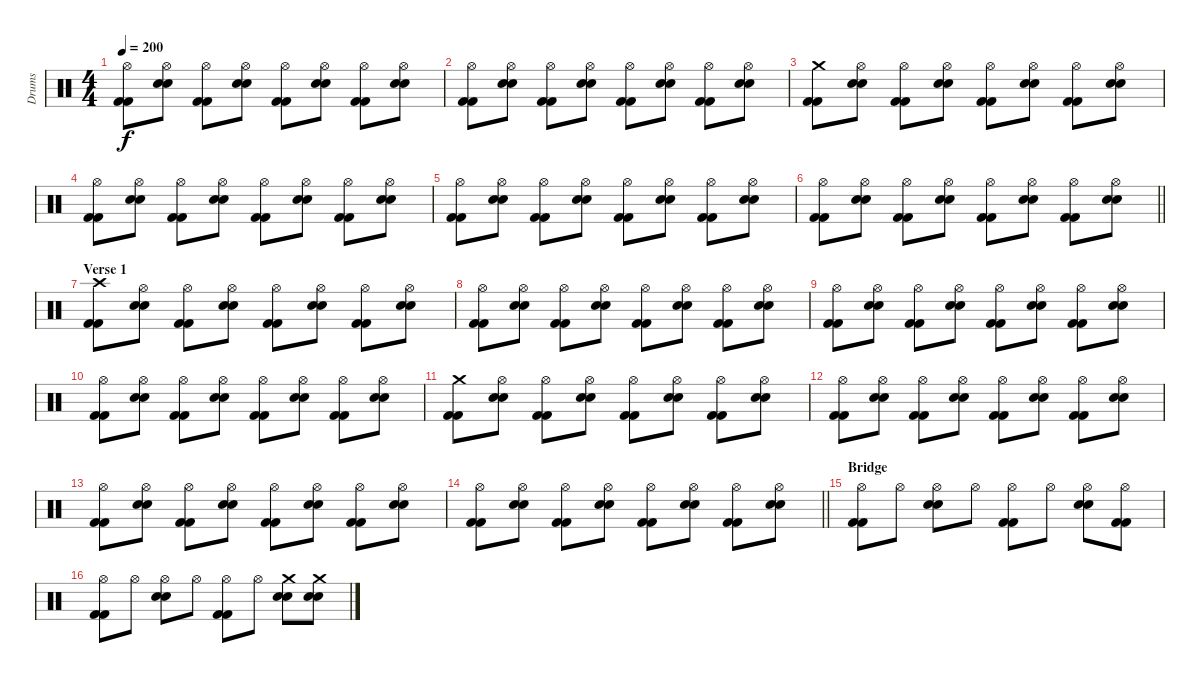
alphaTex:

\track ("Drums" "Drums") {instrument percussion}
\staff {score}
\articulation defaults
\ts (4 4)
\tempo 200
\clef neutral
\ks c
("Hi-Hat (open)" "Kick (hit) 2" "Kick (hit) 2").8{dy f} ("Hi-Hat (open)" "Snare (hit) 2" "Snare (hit) 2").8 ("Hi-Hat (open)" "Kick (hit) 2" "Kick (hit) 2").8 ("Hi-Hat (open)" "Snare (hit) 2" "Snare (hit) 2").8 ("Hi-Hat (open)" "Kick (hit) 2" "Kick (hit) 2").8 ("Hi-Hat (open)" "Snare (hit) 2" "Snare (hit) 2").8 ("Hi-Hat (open)" "Kick (hit) 2" "Kick (hit) 2").8 ("Hi-Hat (open)" "Snare (hit) 2" "Snare (hit) 2").8 |
("Hi-Hat (open)" "Kick (hit) 2" "Kick (hit) 2").8 ("Hi-Hat (open)" "Snare (hit) 2" "Snare (hit) 2").8 ("Hi-Hat (open)" "Kick (hit) 2" "Kick (hit) 2").8 ("Hi-Hat (open)" "Snare (hit) 2" "Snare (hit) 2").8 ("Hi-Hat (open)" "Kick (hit) 2" "Kick (hit) 2").8 ("Hi-Hat (open)" "Snare (hit) 2" "Snare (hit) 2").8 ("Hi-Hat (open)" "Kick (hit) 2" "Kick (hit) 2").8 ("Hi-Hat (open)" "Snare (hit) 2" "Snare (hit) 2").8 |
("Crash medium (hit)" "Kick (hit) 2" "Kick (hit) 2").8 ("Hi-Hat (open)" "Snare (hit) 2" "Snare (hit) 2").8 ("Hi-Hat (open)" "Kick (hit) 2" "Kick (hit) 2").8 ("Hi-Hat (open)" "Snare (hit) 2" "Snare (hit) 2").8 ("Hi-Hat (open)" "Kick (hit) 2" "Kick (hit) 2").8 ("Hi-Hat (open)" "Snare (hit) 2" "Snare (hit) 2").8 ("Hi-Hat (open)" "Kick (hit) 2" "Kick (hit) 2").8 ("Hi-Hat (open)" "Snare (hit) 2" "Snare (hit) 2").8 |
("Hi-Hat (open)" "Kick (hit) 2" "Kick (hit) 2").8 ("Hi-Hat (open)" "Snare (hit) 2" "Snare (hit) 2").8 ("Hi-Hat (open)" "Kick (hit) 2" "Kick (hit) 2").8 ("Hi-Hat (open)" "Snare (hit) 2" "Snare (hit) 2").8 ("Hi-Hat (open)" "Kick (hit) 2" "Kick (hit) 2").8 ("Hi-Hat (open)" "Snare (hit) 2" "Snare (hit) 2").8 ("Hi-Hat (open)" "Kick (hit) 2" "Kick (hit) 2").8 ("Hi-Hat (open)" "Snare (hit) 2" "Snare (hit) 2").8 |
("Hi-Hat (open)" "Kick (hit) 2" "Kick (hit) 2").8 ("Hi-Hat (open)" "Snare (hit) 2" "Snare (hit) 2").8 ("Hi-Hat (open)" "Kick (hit) 2" "Kick (hit) 2").8 ("Hi-Hat (open)" "Snare (hit) 2" "Snare (hit) 2").8 ("Hi-Hat (open)" "Kick (hit) 2" "Kick (hit) 2").8 ("Hi-Hat (open)" "Snare (hit) 2" "Snare (hit) 2").8 ("Hi-Hat (open)" "Kick (hit) 2" "Kick (hit) 2").8 ("Hi-Hat (open)" "Snare (hit) 2" "Snare (hit) 2").8 |
\barLineRight lightlight
("Hi-Hat (open)" "Kick (hit) 2" "Kick (hit) 2").8 ("Hi-Hat (open)" "Snare (hit) 2" "Snare (hit) 2").8 ("Hi-Hat (open)" "Kick (hit) 2" "Kick (hit) 2").8 ("Hi-Hat (open)" "Snare (hit) 2" "Snare (hit) 2").8 ("Hi-Hat (open)" "Kick (hit) 2" "Kick (hit) 2").8 ("Hi-Hat (open)" "Snare (hit) 2" "Snare (hit) 2").8 ("Hi-Hat (open)" "Kick (hit) 2" "Kick (hit) 2").8 ("Hi-Hat (open)" "Snare (hit) 2" "Snare (hit) 2").8 |
\section ("" "Verse 1")
("Crash high (hit)" "Kick (hit) 2" "Kick (hit) 2").8 ("Hi-Hat (open)" "Snare (hit) 2" "Snare (hit) 2").8 ("Hi-Hat (open)" "Kick (hit) 2" "Kick (hit) 2").8 ("Hi-Hat (open)" "Snare (hit) 2" "Snare (hit) 2").8 ("Hi-Hat (open)" "Kick (hit) 2" "Kick (hit) 2").8 ("Hi-Hat (open)" "Snare (hit) 2" "Snare (hit) 2").8 ("Hi-Hat (open)" "Kick (hit) 2" "Kick (hit) 2").8 ("Hi-Hat (open)" "Snare (hit) 2" "Snare (hit) 2").8 |
("Hi-Hat (open)" "Kick (hit) 2" "Kick (hit) 2").8 ("Hi-Hat (open)" "Snare (hit) 2" "Snare (hit) 2").8 ("Hi-Hat (open)" "Kick (hit) 2" "Kick (hit) 2").8 ("Hi-Hat (open)" "Snare (hit) 2" "Snare (hit) 2").8 ("Hi-Hat (open)" "Kick (hit) 2" "Kick (hit) 2").8 ("Hi-Hat (open)" "Snare (hit) 2" "Snare (hit) 2").8 ("Hi-Hat (open)" "Kick (hit) 2" "Kick (hit) 2").8 ("Hi-Hat (open)" "Snare (hit) 2" "Snare (hit) 2").8 |
("Hi-Hat (open)" "Kick (hit) 2" "Kick (hit) 2").8 ("Hi-Hat (open)" "Snare (hit) 2" "Snare (hit) 2").8 ("Hi-Hat (open)" "Kick (hit) 2" "Kick (hit) 2").8 ("Hi-Hat (open)" "Snare (hit) 2" "Snare (hit) 2").8 ("Hi-Hat (open)" "Kick (hit) 2" "Kick (hit) 2").8 ("Hi-Hat (open)" "Snare (hit) 2" "Snare (hit) 2").8 ("Hi-Hat (open)" "Kick (hit) 2" "Kick (hit) 2").8 ("Hi-Hat (open)" "Snare (hit) 2" "Snare (hit) 2").8 |
("Hi-Hat (open)" "Kick (hit) 2" "Kick (hit) 2").8 ("Hi-Hat (open)" "Snare (hit) 2" "Snare (hit) 2").8 ("Hi-Hat (open)" "Kick (hit) 2" "Kick (hit) 2").8 ("Hi-Hat (open)" "Snare (hit) 2" "Snare (hit) 2").8 ("Hi-Hat (open)" "Kick (hit) 2" "Kick (hit) 2").8 ("Hi-Hat (open)" "Snare (hit) 2" "Snare (hit) 2").8 ("Hi-Hat (open)" "Kick (hit) 2" "Kick (hit) 2").8 ("Hi-Hat (open)" "Snare (hit) 2" "Snare (hit) 2").8 |
("Crash medium (hit)" "Kick (hit) 2" "Kick (hit) 2").8 ("Hi-Hat (open)" "Snare (hit) 2" "Snare (hit) 2").8 ("Hi-Hat (open)" "Kick (hit) 2" "Kick (hit) 2").8 ("Hi-Hat (open)" "Snare (hit) 2" "Snare (hit) 2").8 ("Hi-Hat (open)" "Kick (hit) 2" "Kick (hit) 2").8 ("Hi-Hat (open)" "Snare (hit) 2" "Snare (hit) 2").8 ("Hi-Hat (open)" "Kick (hit) 2" "Kick (hit) 2").8 ("Hi-Hat (open)" "Snare (hit) 2" "Snare (hit) 2").8 |
("Hi-Hat (open)" "Kick (hit) 2" "Kick (hit) 2").8 ("Hi-Hat (open)" "Snare (hit) 2" "Snare (hit) 2").8 ("Hi-Hat (open)" "Kick (hit) 2" "Kick (hit) 2").8 ("Hi-Hat (open)" "Snare (hit) 2" "Snare (hit) 2").8 ("Hi-Hat (open)" "Kick (hit) 2" "Kick (hit) 2").8 ("Hi-Hat (open)" "Snare (hit) 2" "Snare (hit) 2").8 ("Hi-Hat (open)" "Kick (hit) 2" "Kick (hit) 2").8 ("Hi-Hat (open)" "Snare (hit) 2" "Snare (hit) 2").8 |
("Hi-Hat (open)" "Kick (hit) 2" "Kick (hit) 2").8 ("Hi-Hat (open)" "Snare (hit) 2" "Snare (hit) 2").8 ("Hi-Hat (open)" "Kick (hit) 2" "Kick (hit) 2").8 ("Hi-Hat (open)" "Snare (hit) 2" "Snare (hit) 2").8 ("Hi-Hat (open)" "Kick (hit) 2" "Kick (hit) 2").8 ("Hi-Hat (open)" "Snare (hit) 2" "Snare (hit) 2").8 ("Hi-Hat (open)" "Kick (hit) 2" "Kick (hit) 2").8 ("Hi-Hat (open)" "Snare (hit) 2" "Snare (hit) 2").8 |
\barLineRight lightlight
("Hi-Hat (open)" "Kick (hit) 2" "Kick (hit) 2").8 ("Hi-Hat (open)" "Snare (hit) 2" "Snare (hit) 2").8 ("Hi-Hat (open)" "Kick (hit) 2" "Kick (hit) 2").8 ("Hi-Hat (open)" "Snare (hit) 2" "Snare (hit) 2").8 ("Hi-Hat (open)" "Kick (hit) 2" "Kick (hit) 2").8 ("Hi-Hat (open)" "Snare (hit) 2" "Snare (hit) 2").8 ("Hi-Hat (open)" "Kick (hit) 2" "Kick (hit) 2").8 ("Hi-Hat (open)" "Snare (hit) 2" "Snare (hit) 2").8 |
\section ("" "Bridge")
("Hi-Hat (open)" "Kick (hit) 2" "Kick (hit) 2").8 "Hi-Hat (open)".8 ("Hi-Hat (open)" "Snare (hit) 2" "Snare (hit) 2").8 "Hi-Hat (open)".8 ("Hi-Hat (open)" "Kick (hit) 2" "Kick (hit) 2").8 "Hi-Hat (open)".8 ("Hi-Hat (open)" "Snare (hit) 2" "Snare (hit) 2").8 ("Hi-Hat (open)" "Kick (hit) 2" "Kick (hit) 2").8 |
("Hi-Hat (open)" "Kick (hit) 2" "Kick (hit) 2").8 "Hi-Hat (open)".8 ("Hi-Hat (open)" "Snare (hit) 2" "Snare (hit) 2").8 "Hi-Hat (open)".8 ("Hi-Hat (open)" "Kick (hit) 2" "Kick (hit) 2").8 "Hi-Hat (open)".8 ("Crash medium (hit)" "Snare (hit) 2" "Snare (hit) 2").8 ("Crash medium (hit)" "Snare (hit) 2" "Snare (hit) 2").8
